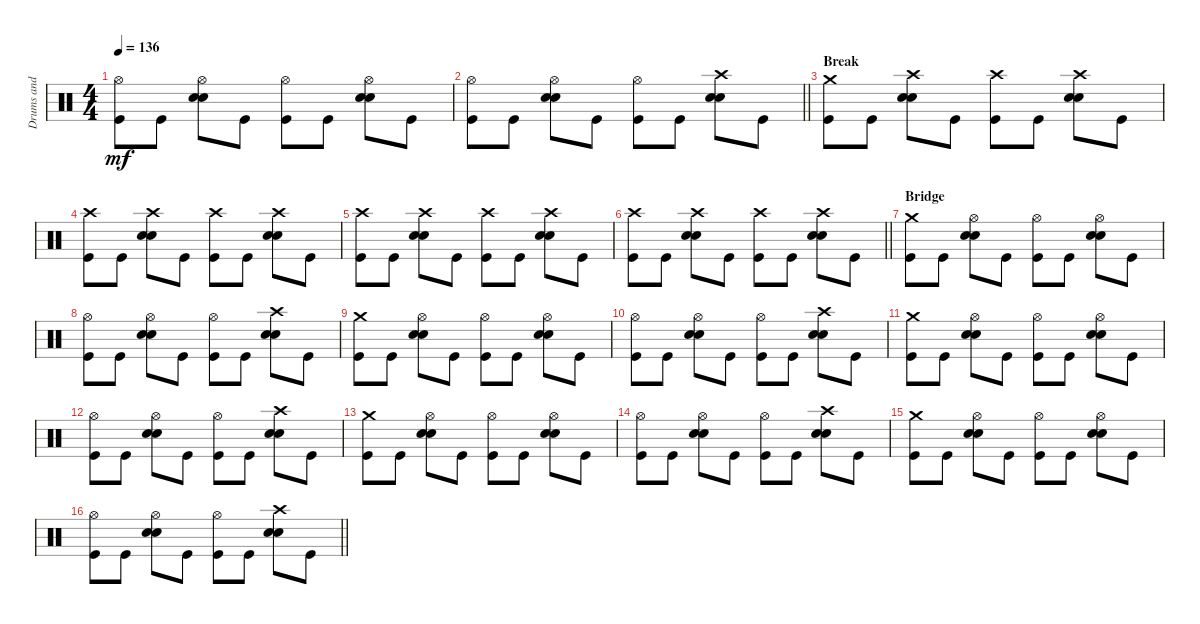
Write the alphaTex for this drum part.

\track ("Drums and Percussions" "Drums and ") {instrument percussion}
\staff {score}
\articulation defaults
\ts (4 4)
\tempo 136
\clef neutral
\ks c
("Hi-Hat (open)" "Kick (hit)").8{dy mf} "Kick (hit)".8 ("Hi-Hat (open)" "Electric Snare (hit)" "Electric Snare (hit)").8 "Kick (hit)".8 ("Hi-Hat (open)" "Kick (hit)").8 "Kick (hit)".8 ("Hi-Hat (open)" "Electric Snare (hit)" "Electric Snare (hit)").8 "Kick (hit)".8 |
\barLineRight lightlight
("Hi-Hat (open)" "Kick (hit)").8 "Kick (hit)".8 ("Hi-Hat (open)" "Electric Snare (hit)" "Electric Snare (hit)").8 "Kick (hit)".8 ("Hi-Hat (open)" "Kick (hit)").8 "Kick (hit)".8 ("Crash high (hit)" "Electric Snare (hit)" "Electric Snare (hit)").8 "Kick (hit)".8 |
\section ("" "Break")
("Crash medium (hit)" "Kick (hit)").8 "Kick (hit)".8 ("Crash high (hit)" "Electric Snare (hit)" "Electric Snare (hit)").8 "Kick (hit)".8 ("Crash high (hit)" "Kick (hit)").8 "Kick (hit)".8 ("Crash high (hit)" "Electric Snare (hit)" "Electric Snare (hit)").8 "Kick (hit)".8 |
("Crash high (hit)" "Kick (hit)").8 "Kick (hit)".8 ("Crash high (hit)" "Electric Snare (hit)" "Electric Snare (hit)").8 "Kick (hit)".8 ("Crash high (hit)" "Kick (hit)").8 "Kick (hit)".8 ("Crash high (hit)" "Electric Snare (hit)" "Electric Snare (hit)").8 "Kick (hit)".8 |
("Crash high (hit)" "Kick (hit)").8 "Kick (hit)".8 ("Crash high (hit)" "Electric Snare (hit)" "Electric Snare (hit)").8 "Kick (hit)".8 ("Crash high (hit)" "Kick (hit)").8 "Kick (hit)".8 ("Crash high (hit)" "Electric Snare (hit)" "Electric Snare (hit)").8 "Kick (hit)".8 |
\barLineRight lightlight
("Crash high (hit)" "Kick (hit)").8 "Kick (hit)".8 ("Crash high (hit)" "Electric Snare (hit)" "Electric Snare (hit)").8 "Kick (hit)".8 ("Crash high (hit)" "Kick (hit)").8 "Kick (hit)".8 ("Crash high (hit)" "Electric Snare (hit)" "Electric Snare (hit)").8 "Kick (hit)".8 |
\section ("" "Bridge")
("Crash medium (hit)" "Kick (hit)").8 "Kick (hit)".8 ("Hi-Hat (open)" "Electric Snare (hit)" "Electric Snare (hit)").8 "Kick (hit)".8 ("Hi-Hat (open)" "Kick (hit)").8 "Kick (hit)".8 ("Hi-Hat (open)" "Electric Snare (hit)" "Electric Snare (hit)").8 "Kick (hit)".8 |
("Hi-Hat (open)" "Kick (hit)").8 "Kick (hit)".8 ("Hi-Hat (open)" "Electric Snare (hit)" "Electric Snare (hit)").8 "Kick (hit)".8 ("Hi-Hat (open)" "Kick (hit)").8 "Kick (hit)".8 ("Crash high (hit)" "Electric Snare (hit)" "Electric Snare (hit)").8 "Kick (hit)".8 |
("Crash medium (hit)" "Kick (hit)").8 "Kick (hit)".8 ("Hi-Hat (open)" "Electric Snare (hit)" "Electric Snare (hit)").8 "Kick (hit)".8 ("Hi-Hat (open)" "Kick (hit)").8 "Kick (hit)".8 ("Hi-Hat (open)" "Electric Snare (hit)" "Electric Snare (hit)").8 "Kick (hit)".8 |
("Hi-Hat (open)" "Kick (hit)").8 "Kick (hit)".8 ("Hi-Hat (open)" "Electric Snare (hit)" "Electric Snare (hit)").8 "Kick (hit)".8 ("Hi-Hat (open)" "Kick (hit)").8 "Kick (hit)".8 ("Crash high (hit)" "Electric Snare (hit)" "Electric Snare (hit)").8 "Kick (hit)".8 |
("Crash medium (hit)" "Kick (hit)").8 "Kick (hit)".8 ("Hi-Hat (open)" "Electric Snare (hit)" "Electric Snare (hit)").8 "Kick (hit)".8 ("Hi-Hat (open)" "Kick (hit)").8 "Kick (hit)".8 ("Hi-Hat (open)" "Electric Snare (hit)" "Electric Snare (hit)").8 "Kick (hit)".8 |
("Hi-Hat (open)" "Kick (hit)").8 "Kick (hit)".8 ("Hi-Hat (open)" "Electric Snare (hit)" "Electric Snare (hit)").8 "Kick (hit)".8 ("Hi-Hat (open)" "Kick (hit)").8 "Kick (hit)".8 ("Crash high (hit)" "Electric Snare (hit)" "Electric Snare (hit)").8 "Kick (hit)".8 |
("Crash medium (hit)" "Kick (hit)").8 "Kick (hit)".8 ("Hi-Hat (open)" "Electric Snare (hit)" "Electric Snare (hit)").8 "Kick (hit)".8 ("Hi-Hat (open)" "Kick (hit)").8 "Kick (hit)".8 ("Hi-Hat (open)" "Electric Snare (hit)" "Electric Snare (hit)").8 "Kick (hit)".8 |
("Hi-Hat (open)" "Kick (hit)").8 "Kick (hit)".8 ("Hi-Hat (open)" "Electric Snare (hit)" "Electric Snare (hit)").8 "Kick (hit)".8 ("Hi-Hat (open)" "Kick (hit)").8 "Kick (hit)".8 ("Crash high (hit)" "Electric Snare (hit)" "Electric Snare (hit)").8 "Kick (hit)".8 |
("Crash medium (hit)" "Kick (hit)").8 "Kick (hit)".8 ("Hi-Hat (open)" "Electric Snare (hit)" "Electric Snare (hit)").8 "Kick (hit)".8 ("Hi-Hat (open)" "Kick (hit)").8 "Kick (hit)".8 ("Hi-Hat (open)" "Electric Snare (hit)" "Electric Snare (hit)").8 "Kick (hit)".8 |
\barLineRight lightlight
("Hi-Hat (open)" "Kick (hit)").8 "Kick (hit)".8 ("Hi-Hat (open)" "Electric Snare (hit)" "Electric Snare (hit)").8 "Kick (hit)".8 ("Hi-Hat (open)" "Kick (hit)").8 "Kick (hit)".8 ("Crash high (hit)" "Electric Snare (hit)" "Electric Snare (hit)").8 "Kick (hit)".8
